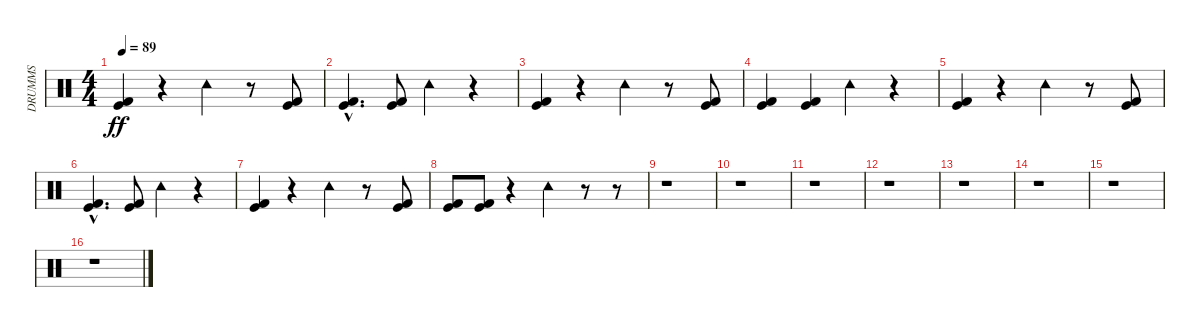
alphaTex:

\track ("DRUMMS" "DRUMMS") {instrument percussion}
\staff {score}
\articulation defaults
\ts (4 4)
\tempo 89
\clef neutral
\ks c
("Kick (hit)" "Kick (hit) 2").4{dy ff} r.4 "Tambourine (hit)".4 r.8 ("Kick (hit)" "Kick (hit) 2").8 |
("Kick (hit)"{hac} "Kick (hit) 2"{hac}).4{d} ("Kick (hit)" "Kick (hit) 2").8 "Tambourine (hit)".4 r.4 |
("Kick (hit)" "Kick (hit) 2").4 r.4 "Tambourine (hit)".4 r.8 ("Kick (hit)" "Kick (hit) 2").8 |
("Kick (hit)" "Kick (hit) 2").4 ("Kick (hit)" "Kick (hit) 2").4 "Tambourine (hit)".4 r.4 |
("Kick (hit)" "Kick (hit) 2").4 r.4 "Tambourine (hit)".4 r.8 ("Kick (hit)" "Kick (hit) 2").8 |
("Kick (hit)"{hac} "Kick (hit) 2"{hac}).4{d} ("Kick (hit)" "Kick (hit) 2").8 "Tambourine (hit)".4 r.4 |
("Kick (hit)" "Kick (hit) 2").4 r.4 "Tambourine (hit)".4 r.8 ("Kick (hit)" "Kick (hit) 2").8 |
("Kick (hit)" "Kick (hit) 2").8 ("Kick (hit)" "Kick (hit) 2").8 r.4 "Tambourine (hit)".4 r.8 r.8 |
r.1 |
r.1 |
r.1 |
r.1 |
r.1 |
r.1 |
r.1 |
r.1
